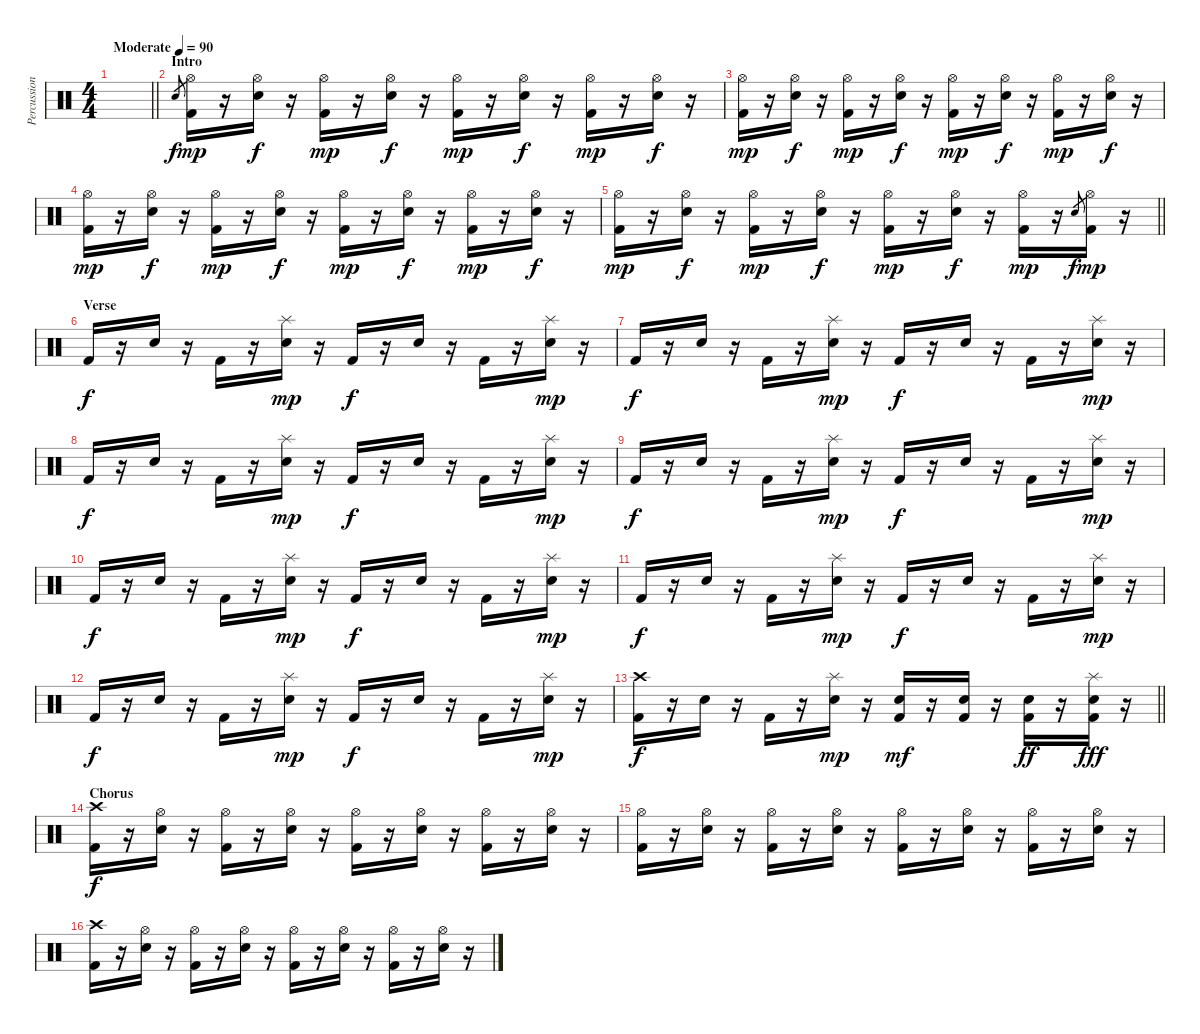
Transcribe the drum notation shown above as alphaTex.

\track ("Percussion" "Percussion") {instrument percussion}
\staff {score}
\articulation defaults
\ts (4 4)
\tempo (90 "Moderate")
\clef neutral
\barLineRight lightlight
\ks c
|
\section ("" "Intro")
"Electric Snare (hit)".8{gr} ("Hi-Hat (open)" "Kick (hit) 2").16{dy mp} r.16 ("Hi-Hat (open)" "Electric Snare (hit)").16{dy f} r.16 ("Hi-Hat (open)" "Kick (hit) 2").16{dy mp} r.16 ("Hi-Hat (open)" "Electric Snare (hit)").16{dy f} r.16 ("Hi-Hat (open)" "Kick (hit) 2").16{dy mp} r.16 ("Hi-Hat (open)" "Electric Snare (hit)").16{dy f} r.16 ("Hi-Hat (open)" "Kick (hit) 2").16{dy mp} r.16 ("Hi-Hat (open)" "Electric Snare (hit)").16{dy f} r.16 |
("Hi-Hat (open)" "Kick (hit) 2").16{dy mp} r.16 ("Hi-Hat (open)" "Electric Snare (hit)").16{dy f} r.16 ("Hi-Hat (open)" "Kick (hit) 2").16{dy mp} r.16 ("Hi-Hat (open)" "Electric Snare (hit)").16{dy f} r.16 ("Hi-Hat (open)" "Kick (hit) 2").16{dy mp} r.16 ("Hi-Hat (open)" "Electric Snare (hit)").16{dy f} r.16 ("Hi-Hat (open)" "Kick (hit) 2").16{dy mp} r.16 ("Hi-Hat (open)" "Electric Snare (hit)").16{dy f} r.16 |
("Hi-Hat (open)" "Kick (hit) 2").16{dy mp} r.16 ("Hi-Hat (open)" "Electric Snare (hit)").16{dy f} r.16 ("Hi-Hat (open)" "Kick (hit) 2").16{dy mp} r.16 ("Hi-Hat (open)" "Electric Snare (hit)").16{dy f} r.16 ("Hi-Hat (open)" "Kick (hit) 2").16{dy mp} r.16 ("Hi-Hat (open)" "Electric Snare (hit)").16{dy f} r.16 ("Hi-Hat (open)" "Kick (hit) 2").16{dy mp} r.16 ("Hi-Hat (open)" "Electric Snare (hit)").16{dy f} r.16 |
\barLineRight lightlight
("Hi-Hat (open)" "Kick (hit) 2").16{dy mp} r.16 ("Hi-Hat (open)" "Electric Snare (hit)").16{dy f} r.16 ("Hi-Hat (open)" "Kick (hit) 2").16{dy mp} r.16 ("Hi-Hat (open)" "Electric Snare (hit)").16{dy f} r.16 ("Hi-Hat (open)" "Kick (hit) 2").16{dy mp} r.16 ("Hi-Hat (open)" "Electric Snare (hit)").16{dy f} r.16 ("Hi-Hat (open)" "Kick (hit) 2").16{dy mp} r.16 "Electric Snare (hit)".8{gr dy f} ("Hi-Hat (open)" "Kick (hit) 2").16{dy mp} r.16 |
\section ("" "Verse")
"Kick (hit) 2".16{dy f} r.16 "Electric Snare (hit)".16 r.16 "Kick (hit) 2".16 r.16 ("Splash (hit)" "Electric Snare (hit)").16{dy mp} r.16 "Kick (hit) 2".16{dy f} r.16 "Electric Snare (hit)".16 r.16 "Kick (hit) 2".16 r.16 ("Splash (hit)" "Electric Snare (hit)").16{dy mp} r.16 |
"Kick (hit) 2".16{dy f} r.16 "Electric Snare (hit)".16 r.16 "Kick (hit) 2".16 r.16 ("Splash (hit)" "Electric Snare (hit)").16{dy mp} r.16 "Kick (hit) 2".16{dy f} r.16 "Electric Snare (hit)".16 r.16 "Kick (hit) 2".16 r.16 ("Splash (hit)" "Electric Snare (hit)").16{dy mp} r.16 |
"Kick (hit) 2".16{dy f} r.16 "Electric Snare (hit)".16 r.16 "Kick (hit) 2".16 r.16 ("Splash (hit)" "Electric Snare (hit)").16{dy mp} r.16 "Kick (hit) 2".16{dy f} r.16 "Electric Snare (hit)".16 r.16 "Kick (hit) 2".16 r.16 ("Splash (hit)" "Electric Snare (hit)").16{dy mp} r.16 |
"Kick (hit) 2".16{dy f} r.16 "Electric Snare (hit)".16 r.16 "Kick (hit) 2".16 r.16 ("Splash (hit)" "Electric Snare (hit)").16{dy mp} r.16 "Kick (hit) 2".16{dy f} r.16 "Electric Snare (hit)".16 r.16 "Kick (hit) 2".16 r.16 ("Splash (hit)" "Electric Snare (hit)").16{dy mp} r.16 |
"Kick (hit) 2".16{dy f} r.16 "Electric Snare (hit)".16 r.16 "Kick (hit) 2".16 r.16 ("Splash (hit)" "Electric Snare (hit)").16{dy mp} r.16 "Kick (hit) 2".16{dy f} r.16 "Electric Snare (hit)".16 r.16 "Kick (hit) 2".16 r.16 ("Splash (hit)" "Electric Snare (hit)").16{dy mp} r.16 |
"Kick (hit) 2".16{dy f} r.16 "Electric Snare (hit)".16 r.16 "Kick (hit) 2".16 r.16 ("Splash (hit)" "Electric Snare (hit)").16{dy mp} r.16 "Kick (hit) 2".16{dy f} r.16 "Electric Snare (hit)".16 r.16 "Kick (hit) 2".16 r.16 ("Splash (hit)" "Electric Snare (hit)").16{dy mp} r.16 |
"Kick (hit) 2".16{dy f} r.16 "Electric Snare (hit)".16 r.16 "Kick (hit) 2".16 r.16 ("Splash (hit)" "Electric Snare (hit)").16{dy mp} r.16 "Kick (hit) 2".16{dy f} r.16 "Electric Snare (hit)".16 r.16 "Kick (hit) 2".16 r.16 ("Splash (hit)" "Electric Snare (hit)").16{dy mp} r.16 |
\barLineRight lightlight
("Crash high (hit)" "Kick (hit) 2").16{dy f} r.16 "Electric Snare (hit)".16 r.16 "Kick (hit) 2".16 r.16 ("Splash (hit)" "Electric Snare (hit)").16{dy mp} r.16 ("Electric Snare (hit)" "Kick (hit) 2").16{dy mf} r.16 ("Electric Snare (hit)" "Kick (hit) 2").16 r.16 ("Electric Snare (hit)" "Kick (hit) 2").16{dy ff} r.16 ("Splash (hit)" "Electric Snare (hit)" "Kick (hit) 2").16{dy fff} r.16 |
\section ("" "Chorus")
("Crash high (hit)" "Kick (hit) 2").16{dy f} r.16 ("Hi-Hat (open)" "Electric Snare (hit)").16 r.16 ("Hi-Hat (open)" "Kick (hit) 2").16 r.16 ("Hi-Hat (open)" "Electric Snare (hit)").16 r.16 ("Hi-Hat (open)" "Kick (hit) 2").16 r.16 ("Hi-Hat (open)" "Electric Snare (hit)").16 r.16 ("Hi-Hat (open)" "Kick (hit) 2").16 r.16 ("Hi-Hat (open)" "Electric Snare (hit)").16 r.16 |
("Hi-Hat (open)" "Kick (hit) 2").16 r.16 ("Hi-Hat (open)" "Electric Snare (hit)").16 r.16 ("Hi-Hat (open)" "Kick (hit) 2").16 r.16 ("Hi-Hat (open)" "Electric Snare (hit)").16 r.16 ("Hi-Hat (open)" "Kick (hit) 2").16 r.16 ("Hi-Hat (open)" "Electric Snare (hit)").16 r.16 ("Hi-Hat (open)" "Kick (hit) 2").16 r.16 ("Hi-Hat (open)" "Electric Snare (hit)").16 r.16 |
("Crash high (hit)" "Kick (hit) 2").16 r.16 ("Hi-Hat (open)" "Electric Snare (hit)").16 r.16 ("Hi-Hat (open)" "Kick (hit) 2").16 r.16 ("Hi-Hat (open)" "Electric Snare (hit)").16 r.16 ("Hi-Hat (open)" "Kick (hit) 2").16 r.16 ("Hi-Hat (open)" "Electric Snare (hit)").16 r.16 ("Hi-Hat (open)" "Kick (hit) 2").16 r.16 ("Hi-Hat (open)" "Electric Snare (hit)").16 r.16
